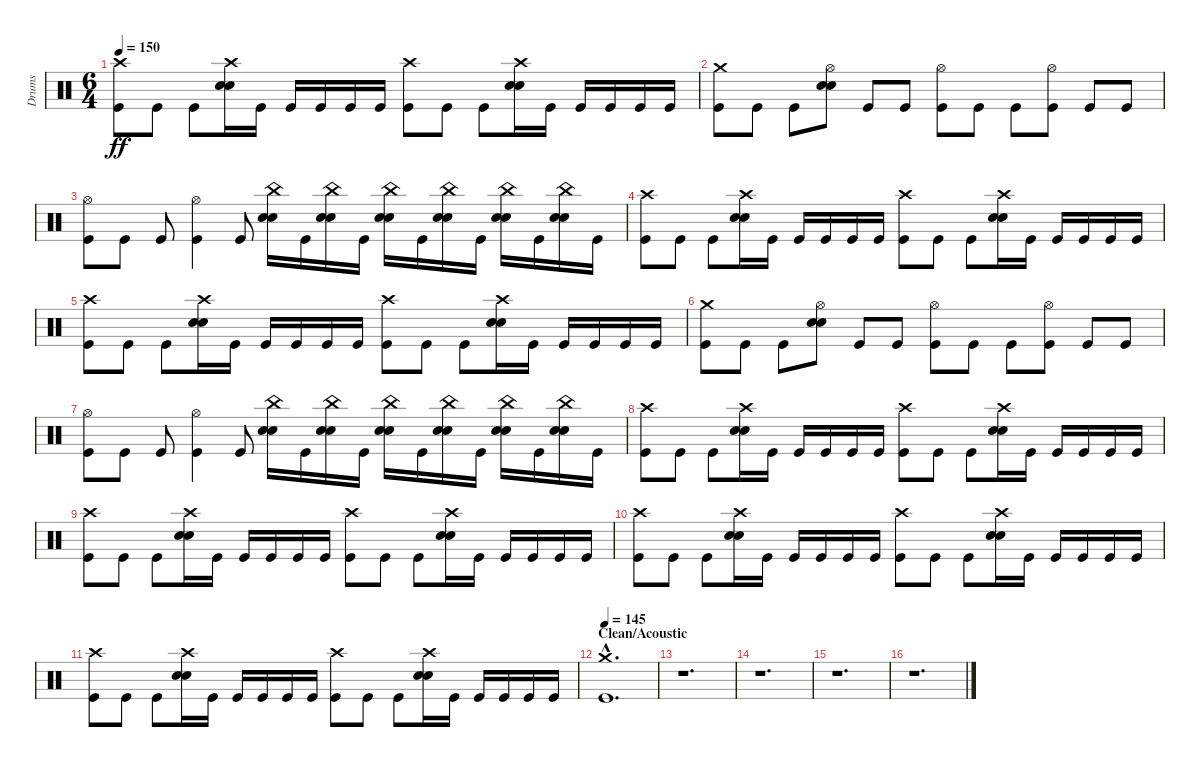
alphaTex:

\track ("Drums" "Drums") {instrument percussion}
\staff {score}
\articulation defaults
\ts (6 4)
\tempo 150
\clef neutral
\ks c
("Kick (hit)" "Crash high (hit)").8{dy ff} "Kick (hit)".8 "Kick (hit)".8 ("Electric Snare (hit)" "Electric Snare (hit)" "Crash high (hit)").16 "Kick (hit)".16 "Kick (hit)".16 "Kick (hit)".16 "Kick (hit)".16 "Kick (hit)".16 ("Kick (hit)" "Crash high (hit)").8 "Kick (hit)".8 "Kick (hit)".8 ("Electric Snare (hit)" "Electric Snare (hit)" "Crash high (hit)").16 "Kick (hit)".16 "Kick (hit)".16 "Kick (hit)".16 "Kick (hit)".16 "Kick (hit)".16 |
("Kick (hit)" "Crash medium (hit)").8 "Kick (hit)".8 "Kick (hit)".8 ("Electric Snare (hit)" "Electric Snare (hit)" "Hi-Hat (open)").8 "Kick (hit)".8 "Kick (hit)".8 ("Kick (hit)" "Hi-Hat (open)").8 "Kick (hit)".8 "Kick (hit)".8 ("Kick (hit)" "Hi-Hat (open)").8 "Kick (hit)".8 "Kick (hit)".8 |
("Kick (hit)" "Hi-Hat (open)").8 "Kick (hit)".8 "Kick (hit)".8 ("Kick (hit)" "Hi-Hat (open)").4 "Kick (hit)".8 ("Electric Snare (hit)" "Electric Snare (hit)" "China (hit)").16 "Kick (hit)".16 ("Electric Snare (hit)" "Electric Snare (hit)" "China (hit)").16 "Kick (hit)".16 ("Electric Snare (hit)" "Electric Snare (hit)" "China (hit)").16 "Kick (hit)".16 ("Electric Snare (hit)" "Electric Snare (hit)" "China (hit)").16 "Kick (hit)".16 ("Electric Snare (hit)" "Electric Snare (hit)" "China (hit)").16 "Kick (hit)".16 ("Electric Snare (hit)" "Electric Snare (hit)" "China (hit)").16 "Kick (hit)".16 |
("Kick (hit)" "Crash high (hit)").8 "Kick (hit)".8 "Kick (hit)".8 ("Electric Snare (hit)" "Electric Snare (hit)" "Crash high (hit)").16 "Kick (hit)".16 "Kick (hit)".16 "Kick (hit)".16 "Kick (hit)".16 "Kick (hit)".16 ("Kick (hit)" "Crash high (hit)").8 "Kick (hit)".8 "Kick (hit)".8 ("Electric Snare (hit)" "Electric Snare (hit)" "Crash high (hit)").16 "Kick (hit)".16 "Kick (hit)".16 "Kick (hit)".16 "Kick (hit)".16 "Kick (hit)".16 |
("Kick (hit)" "Crash high (hit)").8 "Kick (hit)".8 "Kick (hit)".8 ("Electric Snare (hit)" "Electric Snare (hit)" "Crash high (hit)").16 "Kick (hit)".16 "Kick (hit)".16 "Kick (hit)".16 "Kick (hit)".16 "Kick (hit)".16 ("Kick (hit)" "Crash high (hit)").8 "Kick (hit)".8 "Kick (hit)".8 ("Electric Snare (hit)" "Electric Snare (hit)" "Crash high (hit)").16 "Kick (hit)".16 "Kick (hit)".16 "Kick (hit)".16 "Kick (hit)".16 "Kick (hit)".16 |
("Kick (hit)" "Crash medium (hit)").8 "Kick (hit)".8 "Kick (hit)".8 ("Electric Snare (hit)" "Electric Snare (hit)" "Hi-Hat (open)").8 "Kick (hit)".8 "Kick (hit)".8 ("Kick (hit)" "Hi-Hat (open)").8 "Kick (hit)".8 "Kick (hit)".8 ("Kick (hit)" "Hi-Hat (open)").8 "Kick (hit)".8 "Kick (hit)".8 |
("Kick (hit)" "Hi-Hat (open)").8 "Kick (hit)".8 "Kick (hit)".8 ("Kick (hit)" "Hi-Hat (open)").4 "Kick (hit)".8 ("Electric Snare (hit)" "Electric Snare (hit)" "China (hit)").16 "Kick (hit)".16 ("Electric Snare (hit)" "Electric Snare (hit)" "China (hit)").16 "Kick (hit)".16 ("Electric Snare (hit)" "Electric Snare (hit)" "China (hit)").16 "Kick (hit)".16 ("Electric Snare (hit)" "Electric Snare (hit)" "China (hit)").16 "Kick (hit)".16 ("Electric Snare (hit)" "Electric Snare (hit)" "China (hit)").16 "Kick (hit)".16 ("Electric Snare (hit)" "Electric Snare (hit)" "China (hit)").16 "Kick (hit)".16 |
("Kick (hit)" "Crash high (hit)").8 "Kick (hit)".8 "Kick (hit)".8 ("Electric Snare (hit)" "Electric Snare (hit)" "Crash high (hit)").16 "Kick (hit)".16 "Kick (hit)".16 "Kick (hit)".16 "Kick (hit)".16 "Kick (hit)".16 ("Kick (hit)" "Crash high (hit)").8 "Kick (hit)".8 "Kick (hit)".8 ("Electric Snare (hit)" "Electric Snare (hit)" "Crash high (hit)").16 "Kick (hit)".16 "Kick (hit)".16 "Kick (hit)".16 "Kick (hit)".16 "Kick (hit)".16 |
("Kick (hit)" "Crash high (hit)").8 "Kick (hit)".8 "Kick (hit)".8 ("Electric Snare (hit)" "Electric Snare (hit)" "Crash high (hit)").16 "Kick (hit)".16 "Kick (hit)".16 "Kick (hit)".16 "Kick (hit)".16 "Kick (hit)".16 ("Kick (hit)" "Crash high (hit)").8 "Kick (hit)".8 "Kick (hit)".8 ("Electric Snare (hit)" "Electric Snare (hit)" "Crash high (hit)").16 "Kick (hit)".16 "Kick (hit)".16 "Kick (hit)".16 "Kick (hit)".16 "Kick (hit)".16 |
("Kick (hit)" "Crash high (hit)").8 "Kick (hit)".8 "Kick (hit)".8 ("Electric Snare (hit)" "Electric Snare (hit)" "Crash high (hit)").16 "Kick (hit)".16 "Kick (hit)".16 "Kick (hit)".16 "Kick (hit)".16 "Kick (hit)".16 ("Kick (hit)" "Crash high (hit)").8 "Kick (hit)".8 "Kick (hit)".8 ("Electric Snare (hit)" "Electric Snare (hit)" "Crash high (hit)").16 "Kick (hit)".16 "Kick (hit)".16 "Kick (hit)".16 "Kick (hit)".16 "Kick (hit)".16 |
("Kick (hit)" "Crash high (hit)").8 "Kick (hit)".8 "Kick (hit)".8 ("Electric Snare (hit)" "Electric Snare (hit)" "Crash high (hit)").16 "Kick (hit)".16 "Kick (hit)".16 "Kick (hit)".16 "Kick (hit)".16 "Kick (hit)".16 ("Kick (hit)" "Crash high (hit)").8 "Kick (hit)".8 "Kick (hit)".8 ("Electric Snare (hit)" "Electric Snare (hit)" "Crash high (hit)").16 "Kick (hit)".16 "Kick (hit)".16 "Kick (hit)".16 "Kick (hit)".16 "Kick (hit)".16 |
\section ("" "Clean/Acoustic")
\tempo 145
("Kick (hit)"{hac} "Crash medium (hit)"{hac}).1{d} |
r.1{d} |
r.1{d} |
r.1{d} |
r.1{d}
